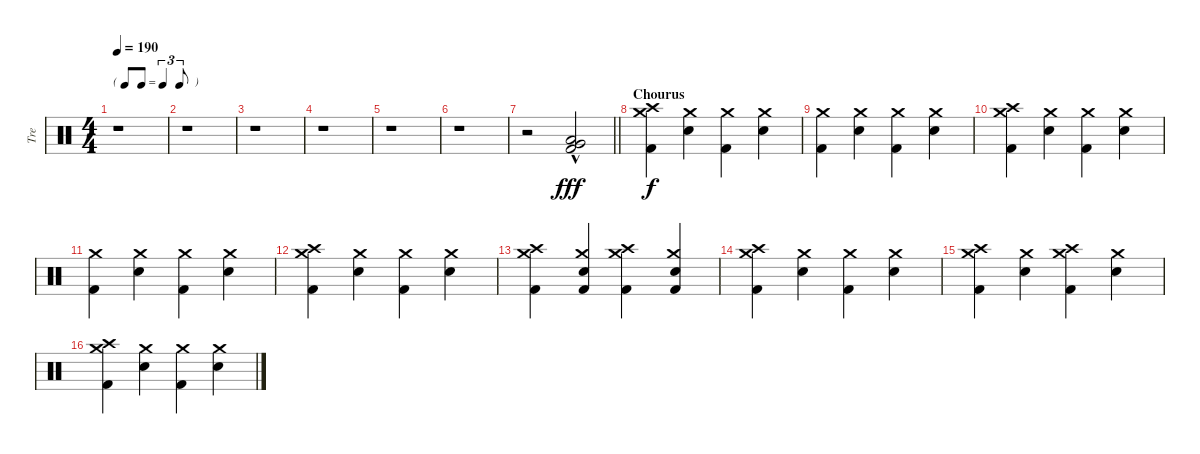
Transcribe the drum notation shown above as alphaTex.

\track ("Tre" "Tre") {instrument percussion}
\staff {score}
\articulation defaults
\ts (4 4)
\tf triplet8th
\tempo 190
\clef neutral
\ks c
r.1{dy fff} |
r.1 |
r.1 |
r.1 |
r.1 |
r.1 |
\barLineRight lightlight
r.2 ("Very Low Tom (hit)"{hac} "Low Floor Tom (hit)"{hac} "Kick (hit) 2"{hac}).2 |
\section ("" "Chourus")
("Crash medium (hit)" "Crash high (hit)" "Kick (hit) 2").4{dy f} ("Crash medium (hit)" "Snare (hit) 2").4 ("Crash medium (hit)" "Kick (hit) 2").4 ("Crash medium (hit)" "Snare (hit) 2").4 |
("Crash medium (hit)" "Kick (hit) 2").4 ("Crash medium (hit)" "Snare (hit) 2").4 ("Crash medium (hit)" "Kick (hit) 2").4 ("Crash medium (hit)" "Snare (hit) 2").4 |
("Crash medium (hit)" "Crash high (hit)" "Kick (hit) 2").4 ("Crash medium (hit)" "Snare (hit) 2").4 ("Crash medium (hit)" "Kick (hit) 2").4 ("Crash medium (hit)" "Snare (hit) 2").4 |
("Crash medium (hit)" "Kick (hit) 2").4 ("Crash medium (hit)" "Snare (hit) 2").4 ("Crash medium (hit)" "Kick (hit) 2").4 ("Crash medium (hit)" "Snare (hit) 2").4 |
("Crash medium (hit)" "Crash high (hit)" "Kick (hit) 2").4 ("Crash medium (hit)" "Snare (hit) 2").4 ("Crash medium (hit)" "Kick (hit) 2").4 ("Crash medium (hit)" "Snare (hit) 2").4 |
("Crash medium (hit)" "Crash high (hit)" "Kick (hit) 2").4 ("Crash medium (hit)" "Snare (hit) 2" "Kick (hit) 2").4 ("Crash medium (hit)" "Crash high (hit)" "Kick (hit) 2").4 ("Crash medium (hit)" "Snare (hit) 2" "Kick (hit) 2").4 |
("Crash medium (hit)" "Crash high (hit)" "Kick (hit) 2").4 ("Crash medium (hit)" "Snare (hit) 2").4 ("Crash medium (hit)" "Kick (hit) 2").4 ("Crash medium (hit)" "Snare (hit) 2").4 |
("Crash medium (hit)" "Crash high (hit)" "Kick (hit) 2").4 ("Crash medium (hit)" "Snare (hit) 2").4 ("Crash medium (hit)" "Crash high (hit)" "Kick (hit) 2").4 ("Crash medium (hit)" "Snare (hit) 2").4 |
("Crash medium (hit)" "Crash high (hit)" "Kick (hit) 2").4 ("Crash medium (hit)" "Snare (hit) 2").4 ("Crash medium (hit)" "Kick (hit) 2").4 ("Crash medium (hit)" "Snare (hit) 2").4
